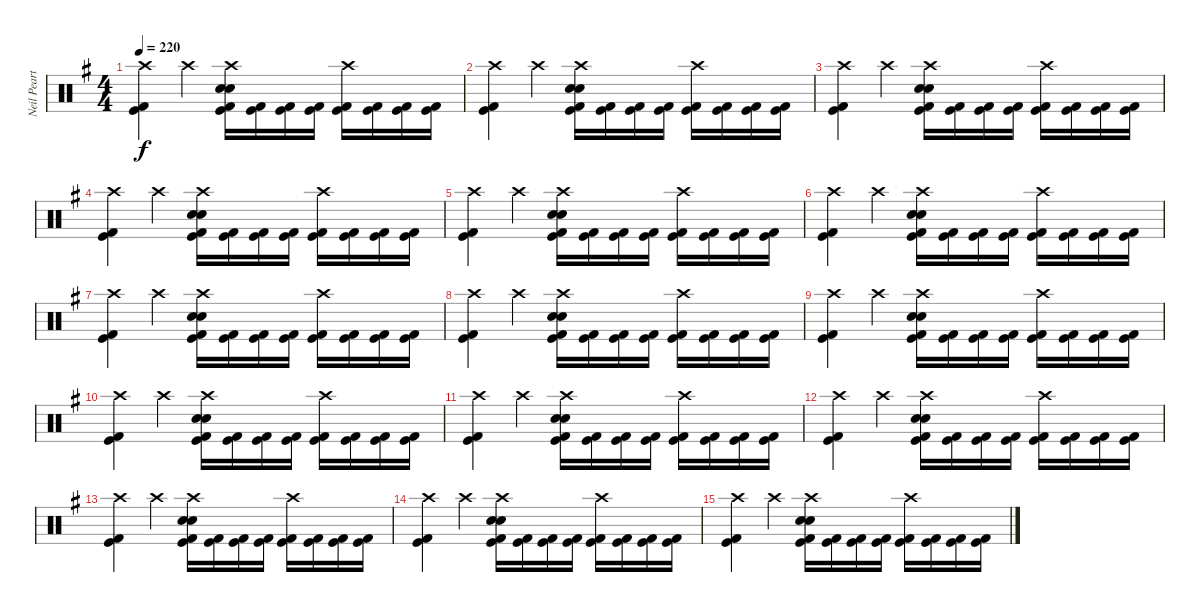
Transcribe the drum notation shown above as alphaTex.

\track ("Neil Peart" "Neil Peart") {instrument percussion}
\staff {score}
\articulation defaults
\ts (4 4)
\tempo 220
\clef neutral
\ks g
("Crash high (hit)" "Kick (hit)" "Kick (hit) 2").4{dy f} "Crash high (hit)".4 ("Snare (hit) 2" "Crash high (hit)" "Snare (hit) 2" "Kick (hit)" "Kick (hit) 2").16 ("Kick (hit)" "Kick (hit) 2").16 ("Kick (hit)" "Kick (hit) 2").16 ("Kick (hit)" "Kick (hit) 2").16 ("Crash high (hit)" "Kick (hit)" "Kick (hit) 2").16 ("Kick (hit)" "Kick (hit) 2").16 ("Kick (hit)" "Kick (hit) 2").16 ("Kick (hit)" "Kick (hit) 2").16 |
("Crash high (hit)" "Kick (hit)" "Kick (hit) 2").4 "Crash high (hit)".4 ("Snare (hit) 2" "Crash high (hit)" "Snare (hit) 2" "Kick (hit)" "Kick (hit) 2").16 ("Kick (hit)" "Kick (hit) 2").16 ("Kick (hit)" "Kick (hit) 2").16 ("Kick (hit)" "Kick (hit) 2").16 ("Crash high (hit)" "Kick (hit)" "Kick (hit) 2").16 ("Kick (hit)" "Kick (hit) 2").16 ("Kick (hit)" "Kick (hit) 2").16 ("Kick (hit)" "Kick (hit) 2").16 |
("Crash high (hit)" "Kick (hit)" "Kick (hit) 2").4 "Crash high (hit)".4 ("Snare (hit) 2" "Crash high (hit)" "Snare (hit) 2" "Kick (hit)" "Kick (hit) 2").16 ("Kick (hit)" "Kick (hit) 2").16 ("Kick (hit)" "Kick (hit) 2").16 ("Kick (hit)" "Kick (hit) 2").16 ("Crash high (hit)" "Kick (hit)" "Kick (hit) 2").16 ("Kick (hit)" "Kick (hit) 2").16 ("Kick (hit)" "Kick (hit) 2").16 ("Kick (hit)" "Kick (hit) 2").16 |
("Crash high (hit)" "Kick (hit)" "Kick (hit) 2").4 "Crash high (hit)".4 ("Snare (hit) 2" "Crash high (hit)" "Snare (hit) 2" "Kick (hit)" "Kick (hit) 2").16 ("Kick (hit)" "Kick (hit) 2").16 ("Kick (hit)" "Kick (hit) 2").16 ("Kick (hit)" "Kick (hit) 2").16 ("Crash high (hit)" "Kick (hit)" "Kick (hit) 2").16 ("Kick (hit)" "Kick (hit) 2").16 ("Kick (hit)" "Kick (hit) 2").16 ("Kick (hit)" "Kick (hit) 2").16 |
("Crash high (hit)" "Kick (hit)" "Kick (hit) 2").4 "Crash high (hit)".4 ("Snare (hit) 2" "Crash high (hit)" "Snare (hit) 2" "Kick (hit)" "Kick (hit) 2").16 ("Kick (hit)" "Kick (hit) 2").16 ("Kick (hit)" "Kick (hit) 2").16 ("Kick (hit)" "Kick (hit) 2").16 ("Crash high (hit)" "Kick (hit)" "Kick (hit) 2").16 ("Kick (hit)" "Kick (hit) 2").16 ("Kick (hit)" "Kick (hit) 2").16 ("Kick (hit)" "Kick (hit) 2").16 |
("Crash high (hit)" "Kick (hit)" "Kick (hit) 2").4 "Crash high (hit)".4 ("Snare (hit) 2" "Crash high (hit)" "Snare (hit) 2" "Kick (hit)" "Kick (hit) 2").16 ("Kick (hit)" "Kick (hit) 2").16 ("Kick (hit)" "Kick (hit) 2").16 ("Kick (hit)" "Kick (hit) 2").16 ("Crash high (hit)" "Kick (hit)" "Kick (hit) 2").16 ("Kick (hit)" "Kick (hit) 2").16 ("Kick (hit)" "Kick (hit) 2").16 ("Kick (hit)" "Kick (hit) 2").16 |
("Crash high (hit)" "Kick (hit)" "Kick (hit) 2").4 "Crash high (hit)".4 ("Snare (hit) 2" "Crash high (hit)" "Snare (hit) 2" "Kick (hit)" "Kick (hit) 2").16 ("Kick (hit)" "Kick (hit) 2").16 ("Kick (hit)" "Kick (hit) 2").16 ("Kick (hit)" "Kick (hit) 2").16 ("Crash high (hit)" "Kick (hit)" "Kick (hit) 2").16 ("Kick (hit)" "Kick (hit) 2").16 ("Kick (hit)" "Kick (hit) 2").16 ("Kick (hit)" "Kick (hit) 2").16 |
("Crash high (hit)" "Kick (hit)" "Kick (hit) 2").4 "Crash high (hit)".4 ("Snare (hit) 2" "Crash high (hit)" "Snare (hit) 2" "Kick (hit)" "Kick (hit) 2").16 ("Kick (hit)" "Kick (hit) 2").16 ("Kick (hit)" "Kick (hit) 2").16 ("Kick (hit)" "Kick (hit) 2").16 ("Crash high (hit)" "Kick (hit)" "Kick (hit) 2").16 ("Kick (hit)" "Kick (hit) 2").16 ("Kick (hit)" "Kick (hit) 2").16 ("Kick (hit)" "Kick (hit) 2").16 |
("Crash high (hit)" "Kick (hit)" "Kick (hit) 2").4 "Crash high (hit)".4 ("Snare (hit) 2" "Crash high (hit)" "Snare (hit) 2" "Kick (hit)" "Kick (hit) 2").16 ("Kick (hit)" "Kick (hit) 2").16 ("Kick (hit)" "Kick (hit) 2").16 ("Kick (hit)" "Kick (hit) 2").16 ("Crash high (hit)" "Kick (hit)" "Kick (hit) 2").16 ("Kick (hit)" "Kick (hit) 2").16 ("Kick (hit)" "Kick (hit) 2").16 ("Kick (hit)" "Kick (hit) 2").16 |
("Crash high (hit)" "Kick (hit)" "Kick (hit) 2").4 "Crash high (hit)".4 ("Snare (hit) 2" "Crash high (hit)" "Snare (hit) 2" "Kick (hit)" "Kick (hit) 2").16 ("Kick (hit)" "Kick (hit) 2").16 ("Kick (hit)" "Kick (hit) 2").16 ("Kick (hit)" "Kick (hit) 2").16 ("Crash high (hit)" "Kick (hit)" "Kick (hit) 2").16 ("Kick (hit)" "Kick (hit) 2").16 ("Kick (hit)" "Kick (hit) 2").16 ("Kick (hit)" "Kick (hit) 2").16 |
("Crash high (hit)" "Kick (hit)" "Kick (hit) 2").4 "Crash high (hit)".4 ("Snare (hit) 2" "Crash high (hit)" "Snare (hit) 2" "Kick (hit)" "Kick (hit) 2").16 ("Kick (hit)" "Kick (hit) 2").16 ("Kick (hit)" "Kick (hit) 2").16 ("Kick (hit)" "Kick (hit) 2").16 ("Crash high (hit)" "Kick (hit)" "Kick (hit) 2").16 ("Kick (hit)" "Kick (hit) 2").16 ("Kick (hit)" "Kick (hit) 2").16 ("Kick (hit)" "Kick (hit) 2").16 |
("Crash high (hit)" "Kick (hit)" "Kick (hit) 2").4 "Crash high (hit)".4 ("Snare (hit) 2" "Crash high (hit)" "Snare (hit) 2" "Kick (hit)" "Kick (hit) 2").16 ("Kick (hit)" "Kick (hit) 2").16 ("Kick (hit)" "Kick (hit) 2").16 ("Kick (hit)" "Kick (hit) 2").16 ("Crash high (hit)" "Kick (hit)" "Kick (hit) 2").16 ("Kick (hit)" "Kick (hit) 2").16 ("Kick (hit)" "Kick (hit) 2").16 ("Kick (hit)" "Kick (hit) 2").16 |
("Crash high (hit)" "Kick (hit)" "Kick (hit) 2").4 "Crash high (hit)".4 ("Snare (hit) 2" "Crash high (hit)" "Snare (hit) 2" "Kick (hit)" "Kick (hit) 2").16 ("Kick (hit)" "Kick (hit) 2").16 ("Kick (hit)" "Kick (hit) 2").16 ("Kick (hit)" "Kick (hit) 2").16 ("Crash high (hit)" "Kick (hit)" "Kick (hit) 2").16 ("Kick (hit)" "Kick (hit) 2").16 ("Kick (hit)" "Kick (hit) 2").16 ("Kick (hit)" "Kick (hit) 2").16 |
("Crash high (hit)" "Kick (hit)" "Kick (hit) 2").4 "Crash high (hit)".4 ("Snare (hit) 2" "Crash high (hit)" "Snare (hit) 2" "Kick (hit)" "Kick (hit) 2").16 ("Kick (hit)" "Kick (hit) 2").16 ("Kick (hit)" "Kick (hit) 2").16 ("Kick (hit)" "Kick (hit) 2").16 ("Crash high (hit)" "Kick (hit)" "Kick (hit) 2").16 ("Kick (hit)" "Kick (hit) 2").16 ("Kick (hit)" "Kick (hit) 2").16 ("Kick (hit)" "Kick (hit) 2").16 |
("Crash high (hit)" "Kick (hit)" "Kick (hit) 2").4 "Crash high (hit)".4 ("Snare (hit) 2" "Crash high (hit)" "Snare (hit) 2" "Kick (hit)" "Kick (hit) 2").16 ("Kick (hit)" "Kick (hit) 2").16 ("Kick (hit)" "Kick (hit) 2").16 ("Kick (hit)" "Kick (hit) 2").16 ("Crash high (hit)" "Kick (hit)" "Kick (hit) 2").16 ("Kick (hit)" "Kick (hit) 2").16 ("Kick (hit)" "Kick (hit) 2").16 ("Kick (hit)" "Kick (hit) 2").16
